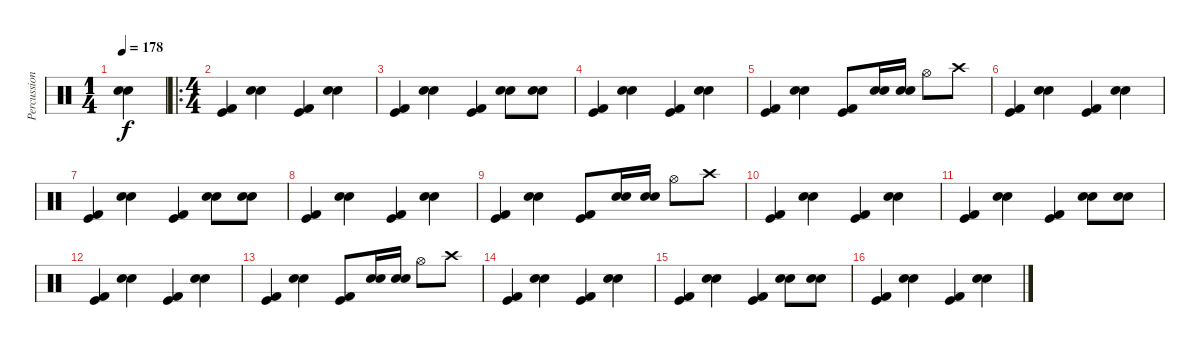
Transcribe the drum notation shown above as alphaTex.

\track ("Percussion" "Percussion") {instrument percussion}
\staff {score}
\articulation defaults
\ts (1 4)
\tempo 178
\clef neutral
\ks c
("Electric Snare (hit)" "Snare (hit) 2").4{dy f} |
\ro
\ts (4 4)
("Kick (hit)" "Kick (hit) 2").4 ("Snare (hit) 2" "Snare (hit) 2").4 ("Kick (hit)" "Kick (hit) 2").4 ("Snare (hit) 2" "Snare (hit) 2").4 |
("Kick (hit)" "Kick (hit) 2").4 ("Snare (hit) 2" "Snare (hit) 2").4 ("Kick (hit)" "Kick (hit) 2").4 ("Electric Snare (hit)" "Snare (hit) 2").8 ("Electric Snare (hit)" "Snare (hit) 2").8 |
("Kick (hit)" "Kick (hit) 2").4 ("Snare (hit) 2" "Snare (hit) 2").4 ("Kick (hit)" "Kick (hit) 2").4 ("Snare (hit) 2" "Snare (hit) 2").4 |
("Kick (hit)" "Kick (hit) 2").4 ("Snare (hit) 2" "Snare (hit) 2").4 ("Kick (hit)" "Kick (hit) 2").8 ("Electric Snare (hit)" "Snare (hit) 2").16 ("Electric Snare (hit)" "Snare (hit) 2").16 "Hi-Hat (open)".8 "Crash high (hit)".8 |
("Kick (hit)" "Kick (hit) 2").4 ("Snare (hit) 2" "Snare (hit) 2").4 ("Kick (hit)" "Kick (hit) 2").4 ("Snare (hit) 2" "Snare (hit) 2").4 |
("Kick (hit)" "Kick (hit) 2").4 ("Snare (hit) 2" "Snare (hit) 2").4 ("Kick (hit)" "Kick (hit) 2").4 ("Electric Snare (hit)" "Snare (hit) 2").8 ("Electric Snare (hit)" "Snare (hit) 2").8 |
("Kick (hit)" "Kick (hit) 2").4 ("Snare (hit) 2" "Snare (hit) 2").4 ("Kick (hit)" "Kick (hit) 2").4 ("Snare (hit) 2" "Snare (hit) 2").4 |
("Kick (hit)" "Kick (hit) 2").4 ("Snare (hit) 2" "Snare (hit) 2").4 ("Kick (hit)" "Kick (hit) 2").8 ("Electric Snare (hit)" "Snare (hit) 2").16 ("Electric Snare (hit)" "Snare (hit) 2").16 "Hi-Hat (open)".8 "Crash high (hit)".8 |
("Kick (hit)" "Kick (hit) 2").4 ("Snare (hit) 2" "Snare (hit) 2").4 ("Kick (hit)" "Kick (hit) 2").4 ("Snare (hit) 2" "Snare (hit) 2").4 |
("Kick (hit)" "Kick (hit) 2").4 ("Snare (hit) 2" "Snare (hit) 2").4 ("Kick (hit)" "Kick (hit) 2").4 ("Electric Snare (hit)" "Snare (hit) 2").8 ("Electric Snare (hit)" "Snare (hit) 2").8 |
("Kick (hit)" "Kick (hit) 2").4 ("Snare (hit) 2" "Snare (hit) 2").4 ("Kick (hit)" "Kick (hit) 2").4 ("Snare (hit) 2" "Snare (hit) 2").4 |
("Kick (hit)" "Kick (hit) 2").4 ("Snare (hit) 2" "Snare (hit) 2").4 ("Kick (hit)" "Kick (hit) 2").8 ("Electric Snare (hit)" "Snare (hit) 2").16 ("Electric Snare (hit)" "Snare (hit) 2").16 "Hi-Hat (open)".8 "Crash high (hit)".8 |
("Kick (hit)" "Kick (hit) 2").4 ("Snare (hit) 2" "Snare (hit) 2").4 ("Kick (hit)" "Kick (hit) 2").4 ("Snare (hit) 2" "Snare (hit) 2").4 |
("Kick (hit)" "Kick (hit) 2").4 ("Snare (hit) 2" "Snare (hit) 2").4 ("Kick (hit)" "Kick (hit) 2").4 ("Electric Snare (hit)" "Snare (hit) 2").8 ("Electric Snare (hit)" "Snare (hit) 2").8 |
("Kick (hit)" "Kick (hit) 2").4 ("Snare (hit) 2" "Snare (hit) 2").4 ("Kick (hit)" "Kick (hit) 2").4 ("Snare (hit) 2" "Snare (hit) 2").4
